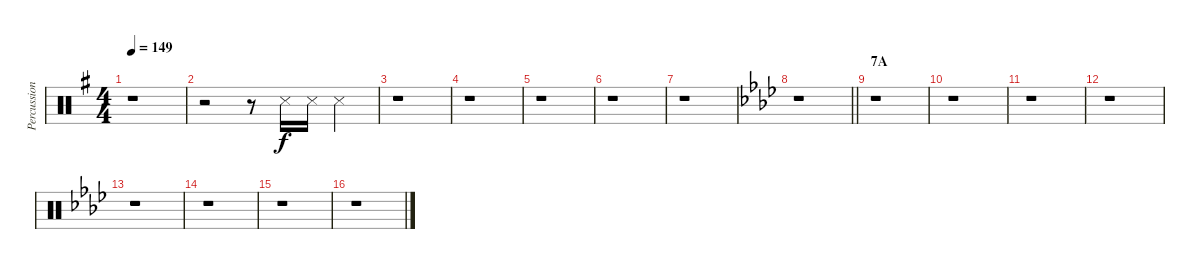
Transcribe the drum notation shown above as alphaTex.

\track ("Percussions" "Percussion") {instrument percussion}
\staff {score}
\articulation defaults
\ts (4 4)
\tempo 149
\clef neutral
\ks g
r.1{dy f} |
r.2 r.8 "Metronome (hit)".16 "Metronome (hit)".16 "Metronome (hit)".4 |
r.1 |
r.1 |
r.1 |
r.1 |
r.1 |
\barLineRight lightlight
\ks ab
r.1 |
\section ("" "7A")
r.1 |
r.1 |
r.1 |
r.1 |
r.1 |
r.1 |
r.1 |
r.1
